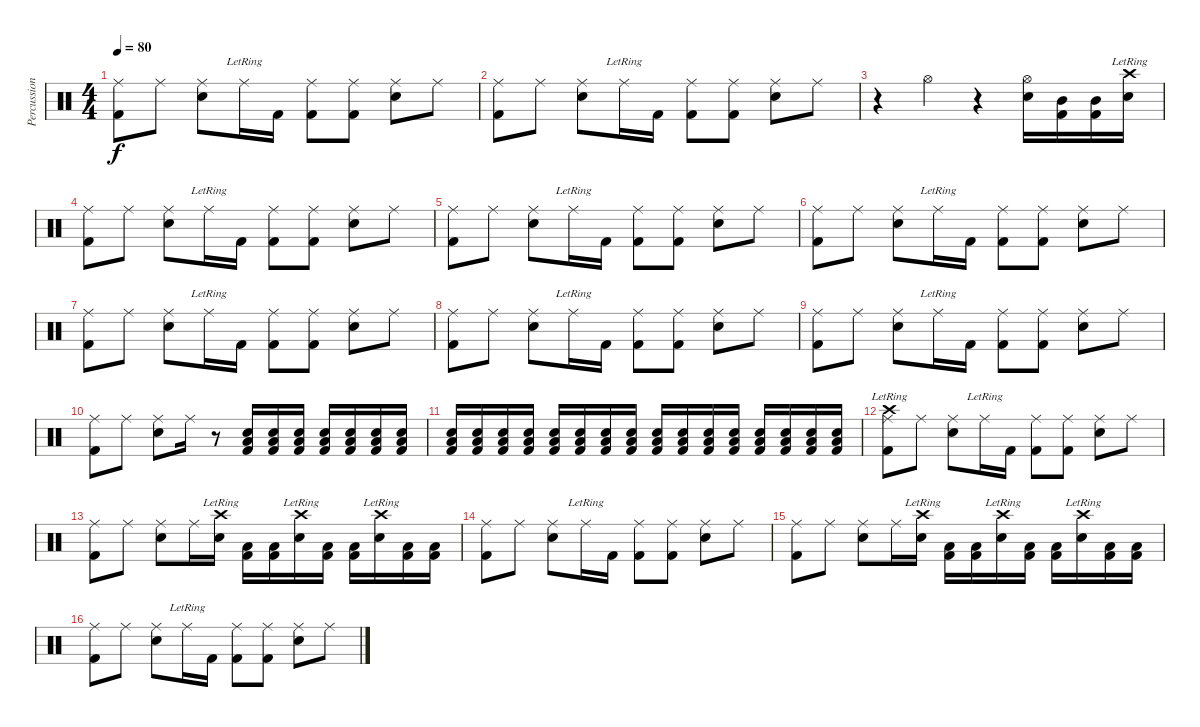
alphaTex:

\track ("Percussions" "Percussion") {instrument percussion}
\staff {score}
\articulation defaults
\ts (4 4)
\tempo 80
\clef neutral
\ks c
("Kick (hit) 2" "Ride (middle)").8{dy f} "Ride (middle)".8 ("Snare (hit) 2" "Ride (middle)").8 "Ride (middle)"{lr}.16 "Kick (hit) 2".16 ("Kick (hit) 2" "Ride (middle)").8 ("Kick (hit) 2" "Ride (middle)").8 ("Snare (hit) 2" "Ride (middle)").8 "Ride (middle)".8 |
("Kick (hit) 2" "Ride (middle)").8 "Ride (middle)".8 ("Snare (hit) 2" "Ride (middle)").8 "Ride (middle)"{lr}.16 "Kick (hit) 2".16 ("Kick (hit) 2" "Ride (middle)").8 ("Kick (hit) 2" "Ride (middle)").8 ("Snare (hit) 2" "Ride (middle)").8 "Ride (middle)".8 |
r.4 "Hi-Hat (open)".4{volume 16} r.4 ("Snare (hit) 2" "Hi-Hat (open)").16 ("Kick (hit) 2" "Mid Tom (hit)").16 ("Kick (hit) 2" "Mid Tom (hit)").16 ("Snare (hit) 2" "Crash high (hit)"{lr}).16 |
("Kick (hit) 2" "Ride (middle)").8 "Ride (middle)".8 ("Snare (hit) 2" "Ride (middle)").8 "Ride (middle)"{lr}.16 "Kick (hit) 2".16 ("Kick (hit) 2" "Ride (middle)").8 ("Kick (hit) 2" "Ride (middle)").8 ("Snare (hit) 2" "Ride (middle)").8 "Ride (middle)".8 |
("Kick (hit) 2" "Ride (middle)").8 "Ride (middle)".8 ("Snare (hit) 2" "Ride (middle)").8 "Ride (middle)"{lr}.16 "Kick (hit) 2".16 ("Kick (hit) 2" "Ride (middle)").8 ("Kick (hit) 2" "Ride (middle)").8 ("Snare (hit) 2" "Ride (middle)").8 "Ride (middle)".8 |
("Kick (hit) 2" "Ride (middle)").8 "Ride (middle)".8 ("Snare (hit) 2" "Ride (middle)").8 "Ride (middle)"{lr}.16 "Kick (hit) 2".16 ("Kick (hit) 2" "Ride (middle)").8 ("Kick (hit) 2" "Ride (middle)").8 ("Snare (hit) 2" "Ride (middle)").8 "Ride (middle)".8 |
("Kick (hit) 2" "Ride (middle)").8 "Ride (middle)".8 ("Snare (hit) 2" "Ride (middle)").8 "Ride (middle)"{lr}.16 "Kick (hit) 2".16 ("Kick (hit) 2" "Ride (middle)").8 ("Kick (hit) 2" "Ride (middle)").8 ("Snare (hit) 2" "Ride (middle)").8 "Ride (middle)".8 |
("Kick (hit) 2" "Ride (middle)").8 "Ride (middle)".8 ("Snare (hit) 2" "Ride (middle)").8 "Ride (middle)"{lr}.16 "Kick (hit) 2".16 ("Kick (hit) 2" "Ride (middle)").8 ("Kick (hit) 2" "Ride (middle)").8 ("Snare (hit) 2" "Ride (middle)").8 "Ride (middle)".8 |
("Kick (hit) 2" "Ride (middle)").8 "Ride (middle)".8 ("Snare (hit) 2" "Ride (middle)").8 "Ride (middle)"{lr}.16 "Kick (hit) 2".16 ("Kick (hit) 2" "Ride (middle)").8 ("Kick (hit) 2" "Ride (middle)").8 ("Snare (hit) 2" "Ride (middle)").8 "Ride (middle)".8 |
("Kick (hit) 2" "Ride (middle)").8 "Ride (middle)".8 ("Snare (hit) 2" "Ride (middle)").8 "Ride (middle)".16{volume 8} r.8 ("Kick (hit) 2" "Snare (hit) 2" "Low Tom (hit)").16{volume 15} ("Kick (hit) 2" "Snare (hit) 2" "Low Tom (hit)").16 ("Kick (hit) 2" "Snare (hit) 2" "Low Tom (hit)").16 ("Kick (hit) 2" "Snare (hit) 2" "Low Tom (hit)").16 ("Kick (hit) 2" "Snare (hit) 2" "Low Tom (hit)").16 ("Kick (hit) 2" "Snare (hit) 2" "Low Tom (hit)").16 ("Kick (hit) 2" "Snare (hit) 2" "Low Tom (hit)").16 |
("Kick (hit) 2" "Snare (hit) 2" "Low Tom (hit)").16 ("Kick (hit) 2" "Snare (hit) 2" "Low Tom (hit)").16 ("Kick (hit) 2" "Snare (hit) 2" "Low Tom (hit)").16 ("Kick (hit) 2" "Snare (hit) 2" "Low Tom (hit)").16 ("Kick (hit) 2" "Snare (hit) 2" "Low Tom (hit)").16 ("Kick (hit) 2" "Snare (hit) 2" "Low Tom (hit)").16 ("Kick (hit) 2" "Snare (hit) 2" "Low Tom (hit)").16 ("Kick (hit) 2" "Snare (hit) 2" "Low Tom (hit)").16 ("Kick (hit) 2" "Snare (hit) 2" "Low Tom (hit)").16 ("Kick (hit) 2" "Snare (hit) 2" "Low Tom (hit)").16 ("Kick (hit) 2" "Snare (hit) 2" "Low Tom (hit)").16 ("Kick (hit) 2" "Snare (hit) 2" "Low Tom (hit)").16 ("Kick (hit) 2" "Snare (hit) 2" "Low Tom (hit)").16 ("Kick (hit) 2" "Snare (hit) 2" "Low Tom (hit)").16 ("Kick (hit) 2" "Snare (hit) 2" "Low Tom (hit)").16 ("Kick (hit) 2" "Snare (hit) 2" "Low Tom (hit)").16 |
("Kick (hit) 2" "Ride (middle)" "Crash high (hit)"{lr}).8 "Ride (middle)".8 ("Snare (hit) 2" "Ride (middle)").8 "Ride (middle)"{lr}.16 "Kick (hit) 2".16 ("Kick (hit) 2" "Ride (middle)").8 ("Kick (hit) 2" "Ride (middle)").8 ("Snare (hit) 2" "Ride (middle)").8 "Ride (middle)".8 |
("Kick (hit) 2" "Ride (middle)").8 "Ride (middle)".8 ("Snare (hit) 2" "Ride (middle)").8 "Ride (middle)".16 ("Snare (hit) 2" "Crash high (hit)"{lr}).16 ("Kick (hit) 2" "Low Tom (hit)").16 ("Kick (hit) 2" "Low Tom (hit)").16 ("Snare (hit) 2" "Crash high (hit)"{lr}).16 ("Kick (hit) 2" "Low Tom (hit)").16 ("Kick (hit) 2" "Low Tom (hit)").16 ("Snare (hit) 2" "Crash high (hit)"{lr}).16 ("Kick (hit) 2" "Low Tom (hit)").16 ("Kick (hit) 2" "Low Tom (hit)").16 |
("Kick (hit) 2" "Ride (middle)").8 "Ride (middle)".8 ("Snare (hit) 2" "Ride (middle)").8 "Ride (middle)"{lr}.16 "Kick (hit) 2".16 ("Kick (hit) 2" "Ride (middle)").8 ("Kick (hit) 2" "Ride (middle)").8 ("Snare (hit) 2" "Ride (middle)").8 "Ride (middle)".8 |
("Kick (hit) 2" "Ride (middle)").8 "Ride (middle)".8 ("Snare (hit) 2" "Ride (middle)").8 "Ride (middle)".16 ("Snare (hit) 2" "Crash high (hit)"{lr}).16 ("Kick (hit) 2" "Low Tom (hit)").16 ("Kick (hit) 2" "Low Tom (hit)").16 ("Snare (hit) 2" "Crash high (hit)"{lr}).16 ("Kick (hit) 2" "Low Tom (hit)").16 ("Kick (hit) 2" "Low Tom (hit)").16 ("Snare (hit) 2" "Crash high (hit)"{lr}).16 ("Kick (hit) 2" "Low Tom (hit)").16 ("Kick (hit) 2" "Low Tom (hit)").16 |
("Kick (hit) 2" "Ride (middle)").8 "Ride (middle)".8 ("Snare (hit) 2" "Ride (middle)").8 "Ride (middle)"{lr}.16 "Kick (hit) 2".16 ("Kick (hit) 2" "Ride (middle)").8 ("Kick (hit) 2" "Ride (middle)").8 ("Snare (hit) 2" "Ride (middle)").8 "Ride (middle)".8
